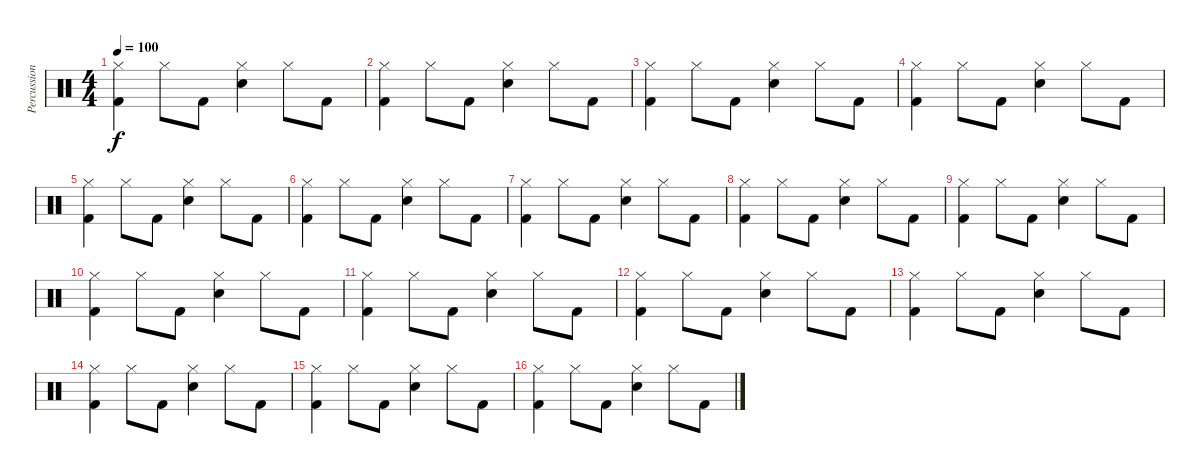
\track ("Percussion" "Percussion") {instrument percussion}
\staff {score}
\articulation defaults
\ts (4 4)
\tempo 100
\clef neutral
\ks c
("Hi-Hat (closed)" "Kick (hit) 2").4{dy f} "Hi-Hat (closed)".8 "Kick (hit) 2".8 ("Hi-Hat (closed)" "Snare (hit) 2").4 "Hi-Hat (closed)".8 "Kick (hit) 2".8 |
("Hi-Hat (closed)" "Kick (hit) 2").4 "Hi-Hat (closed)".8 "Kick (hit) 2".8 ("Hi-Hat (closed)" "Snare (hit) 2").4 "Hi-Hat (closed)".8 "Kick (hit) 2".8 |
("Hi-Hat (closed)" "Kick (hit) 2").4 "Hi-Hat (closed)".8 "Kick (hit) 2".8 ("Hi-Hat (closed)" "Snare (hit) 2").4 "Hi-Hat (closed)".8 "Kick (hit) 2".8 |
("Hi-Hat (closed)" "Kick (hit) 2").4 "Hi-Hat (closed)".8 "Kick (hit) 2".8 ("Hi-Hat (closed)" "Snare (hit) 2").4 "Hi-Hat (closed)".8 "Kick (hit) 2".8 |
("Hi-Hat (closed)" "Kick (hit) 2").4 "Hi-Hat (closed)".8 "Kick (hit) 2".8 ("Hi-Hat (closed)" "Snare (hit) 2").4 "Hi-Hat (closed)".8 "Kick (hit) 2".8 |
("Hi-Hat (closed)" "Kick (hit) 2").4 "Hi-Hat (closed)".8 "Kick (hit) 2".8 ("Hi-Hat (closed)" "Snare (hit) 2").4 "Hi-Hat (closed)".8 "Kick (hit) 2".8 |
("Hi-Hat (closed)" "Kick (hit) 2").4 "Hi-Hat (closed)".8 "Kick (hit) 2".8 ("Hi-Hat (closed)" "Snare (hit) 2").4 "Hi-Hat (closed)".8 "Kick (hit) 2".8 |
("Hi-Hat (closed)" "Kick (hit) 2").4 "Hi-Hat (closed)".8 "Kick (hit) 2".8 ("Hi-Hat (closed)" "Snare (hit) 2").4 "Hi-Hat (closed)".8 "Kick (hit) 2".8 |
("Hi-Hat (closed)" "Kick (hit) 2").4 "Hi-Hat (closed)".8 "Kick (hit) 2".8 ("Hi-Hat (closed)" "Snare (hit) 2").4 "Hi-Hat (closed)".8 "Kick (hit) 2".8 |
("Hi-Hat (closed)" "Kick (hit) 2").4 "Hi-Hat (closed)".8 "Kick (hit) 2".8 ("Hi-Hat (closed)" "Snare (hit) 2").4 "Hi-Hat (closed)".8 "Kick (hit) 2".8 |
("Hi-Hat (closed)" "Kick (hit) 2").4 "Hi-Hat (closed)".8 "Kick (hit) 2".8 ("Hi-Hat (closed)" "Snare (hit) 2").4 "Hi-Hat (closed)".8 "Kick (hit) 2".8 |
("Hi-Hat (closed)" "Kick (hit) 2").4 "Hi-Hat (closed)".8 "Kick (hit) 2".8 ("Hi-Hat (closed)" "Snare (hit) 2").4 "Hi-Hat (closed)".8 "Kick (hit) 2".8 |
("Hi-Hat (closed)" "Kick (hit) 2").4 "Hi-Hat (closed)".8 "Kick (hit) 2".8 ("Hi-Hat (closed)" "Snare (hit) 2").4 "Hi-Hat (closed)".8 "Kick (hit) 2".8 |
("Hi-Hat (closed)" "Kick (hit) 2").4 "Hi-Hat (closed)".8 "Kick (hit) 2".8 ("Hi-Hat (closed)" "Snare (hit) 2").4 "Hi-Hat (closed)".8 "Kick (hit) 2".8 |
("Hi-Hat (closed)" "Kick (hit) 2").4 "Hi-Hat (closed)".8 "Kick (hit) 2".8 ("Hi-Hat (closed)" "Snare (hit) 2").4 "Hi-Hat (closed)".8 "Kick (hit) 2".8 |
("Hi-Hat (closed)" "Kick (hit) 2").4 "Hi-Hat (closed)".8 "Kick (hit) 2".8 ("Hi-Hat (closed)" "Snare (hit) 2").4 "Hi-Hat (closed)".8 "Kick (hit) 2".8
